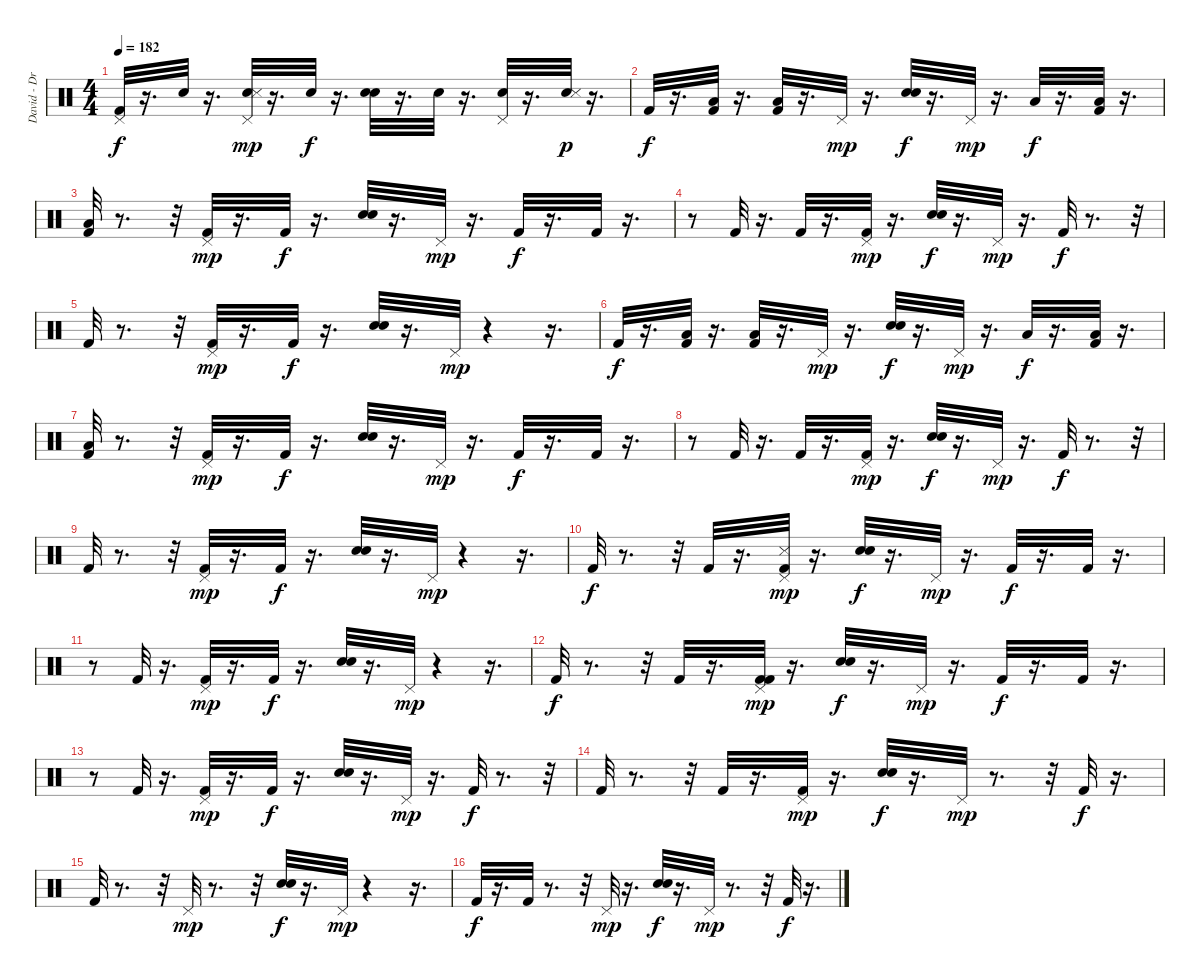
\track ("David - Drums" "David - Dr") {instrument percussion}
\staff {score}
\articulation defaults
\ts (4 4)
\tempo 182
\clef neutral
\ks c
("Pedal Hi-Hat (hit)" "Kick (hit) 2").32{dy f} r.16{d} "Electric Snare (hit)".32 r.16{d} ("Electric Snare (hit)" "Pedal Hi-Hat (hit)" "Snare (side stick) 3").32{dy mp} r.16{d} "Electric Snare (hit)".32{dy f} r.16{d} ("Snare (hit) 2" "Electric Snare (hit)").32 r.16{d} "Electric Snare (hit)".32 r.16{d} ("Electric Snare (hit)" "Pedal Hi-Hat (hit)").32 r.16{d} ("Electric Snare (hit)" "Snare (side stick) 3").32{dy p} r.16{d} |
"Kick (hit) 2".32{dy f} r.16{d} ("Low Floor Tom (hit)" "Kick (hit) 2").32 r.16{d} ("Kick (hit) 2" "Low Floor Tom (hit)").32 r.16{d} "Pedal Hi-Hat (hit)".32{dy mp} r.16{d} ("Electric Snare (hit)" "Snare (hit) 2").32{dy f} r.16{d} "Pedal Hi-Hat (hit)".32{dy mp} r.16{d} "Low Floor Tom (hit)".32{dy f} r.16{d} ("Low Floor Tom (hit)" "Kick (hit) 2").32 r.16{d} |
("Low Tom (hit)" "Kick (hit) 2").32 r.8{d} r.32 ("Kick (hit) 2" "Pedal Hi-Hat (hit)").32{dy mp} r.16{d} "Kick (hit) 2".32{dy f} r.16{d} ("Snare (hit) 2" "Electric Snare (hit)").32 r.16{d} "Pedal Hi-Hat (hit)".32{dy mp} r.16{d} "Kick (hit) 2".32{dy f} r.16{d} "Kick (hit) 2".32 r.16{d} |
r.8 "Kick (hit) 2".32 r.16{d} "Kick (hit) 2".32 r.16{d} ("Kick (hit) 2" "Pedal Hi-Hat (hit)").32{dy mp} r.16{d} ("Electric Snare (hit)" "Snare (hit) 2").32{dy f} r.16{d} "Pedal Hi-Hat (hit)".32{dy mp} r.16{d} "Kick (hit) 2".32{dy f} r.8{d} r.32 |
"Kick (hit) 2".32 r.8{d} r.32 ("Kick (hit) 2" "Pedal Hi-Hat (hit)").32{dy mp} r.16{d} "Kick (hit) 2".32{dy f} r.16{d} ("Snare (hit) 2" "Electric Snare (hit)").32 r.16{d} "Pedal Hi-Hat (hit)".32{dy mp} r.4 r.16{d} |
"Kick (hit) 2".32{dy f} r.16{d} ("Low Floor Tom (hit)" "Kick (hit) 2").32 r.16{d} ("Kick (hit) 2" "Low Floor Tom (hit)").32 r.16{d} "Pedal Hi-Hat (hit)".32{dy mp} r.16{d} ("Electric Snare (hit)" "Snare (hit) 2").32{dy f} r.16{d} "Pedal Hi-Hat (hit)".32{dy mp} r.16{d} "Low Floor Tom (hit)".32{dy f} r.16{d} ("Low Floor Tom (hit)" "Kick (hit) 2").32 r.16{d} |
("Low Tom (hit)" "Kick (hit) 2").32 r.8{d} r.32 ("Kick (hit) 2" "Pedal Hi-Hat (hit)").32{dy mp} r.16{d} "Kick (hit) 2".32{dy f} r.16{d} ("Snare (hit) 2" "Electric Snare (hit)").32 r.16{d} "Pedal Hi-Hat (hit)".32{dy mp} r.16{d} "Kick (hit) 2".32{dy f} r.16{d} "Kick (hit) 2".32 r.16{d} |
r.8 "Kick (hit) 2".32 r.16{d} "Kick (hit) 2".32 r.16{d} ("Kick (hit) 2" "Pedal Hi-Hat (hit)").32{dy mp} r.16{d} ("Electric Snare (hit)" "Snare (hit) 2").32{dy f} r.16{d} "Pedal Hi-Hat (hit)".32{dy mp} r.16{d} "Kick (hit) 2".32{dy f} r.8{d} r.32 |
"Kick (hit) 2".32 r.8{d} r.32 ("Kick (hit) 2" "Pedal Hi-Hat (hit)").32{dy mp} r.16{d} "Kick (hit) 2".32{dy f} r.16{d} ("Snare (hit) 2" "Electric Snare (hit)").32 r.16{d} "Pedal Hi-Hat (hit)".32{dy mp} r.4 r.16{d} |
"Kick (hit) 2".32{dy f} r.8{d} r.32 "Kick (hit) 2".32 r.16{d} ("Snare (side stick) 3" "Pedal Hi-Hat (hit)" "Kick (hit) 2").32{dy mp} r.16{d} ("Electric Snare (hit)" "Snare (hit) 2").32{dy f} r.16{d} "Pedal Hi-Hat (hit)".32{dy mp} r.16{d} "Kick (hit) 2".32{dy f} r.16{d} "Kick (hit) 2".32 r.16{d} |
r.8 "Kick (hit) 2".32 r.16{d} ("Pedal Hi-Hat (hit)" "Kick (hit) 2").32{dy mp} r.16{d} "Kick (hit) 2".32{dy f} r.16{d} ("Snare (hit) 2" "Electric Snare (hit)").32 r.16{d} "Pedal Hi-Hat (hit)".32{dy mp} r.4 r.16{d} |
"Kick (hit) 2".32{dy f} r.8{d} r.32 "Kick (hit) 2".32 r.16{d} ("Kick (hit) 2" "Kick (hit) 2" "Pedal Hi-Hat (hit)").32{dy mp} r.16{d} ("Electric Snare (hit)" "Snare (hit) 2").32{dy f} r.16{d} "Pedal Hi-Hat (hit)".32{dy mp} r.16{d} "Kick (hit) 2".32{dy f} r.16{d} "Kick (hit) 2".32 r.16{d} |
r.8 "Kick (hit) 2".32 r.16{d} ("Kick (hit) 2" "Pedal Hi-Hat (hit)").32{dy mp} r.16{d} "Kick (hit) 2".32{dy f} r.16{d} ("Snare (hit) 2" "Electric Snare (hit)").32 r.16{d} "Pedal Hi-Hat (hit)".32{dy mp} r.16{d} "Kick (hit) 2".32{dy f} r.8{d} r.32 |
"Kick (hit) 2".32 r.8{d} r.32 "Kick (hit) 2".32 r.16{d} ("Kick (hit) 2" "Pedal Hi-Hat (hit)").32{dy mp} r.16{d} ("Electric Snare (hit)" "Snare (hit) 2").32{dy f} r.16{d} "Pedal Hi-Hat (hit)".32{dy mp} r.8{d} r.32 "Kick (hit) 2".32{dy f} r.16{d} |
"Kick (hit) 2".32 r.8{d} r.32 "Pedal Hi-Hat (hit)".32{dy mp} r.8{d} r.32 ("Snare (hit) 2" "Electric Snare (hit)").32{dy f} r.16{d} "Pedal Hi-Hat (hit)".32{dy mp} r.4 r.16{d} |
"Kick (hit) 2".32{dy f} r.16{d} "Kick (hit) 2".32 r.8{d} r.32 "Pedal Hi-Hat (hit)".32{dy mp} r.16{d} ("Electric Snare (hit)" "Snare (hit) 2").32{dy f} r.16{d} "Pedal Hi-Hat (hit)".32{dy mp} r.8{d} r.32 "Kick (hit) 2".32{dy f} r.16{d}
